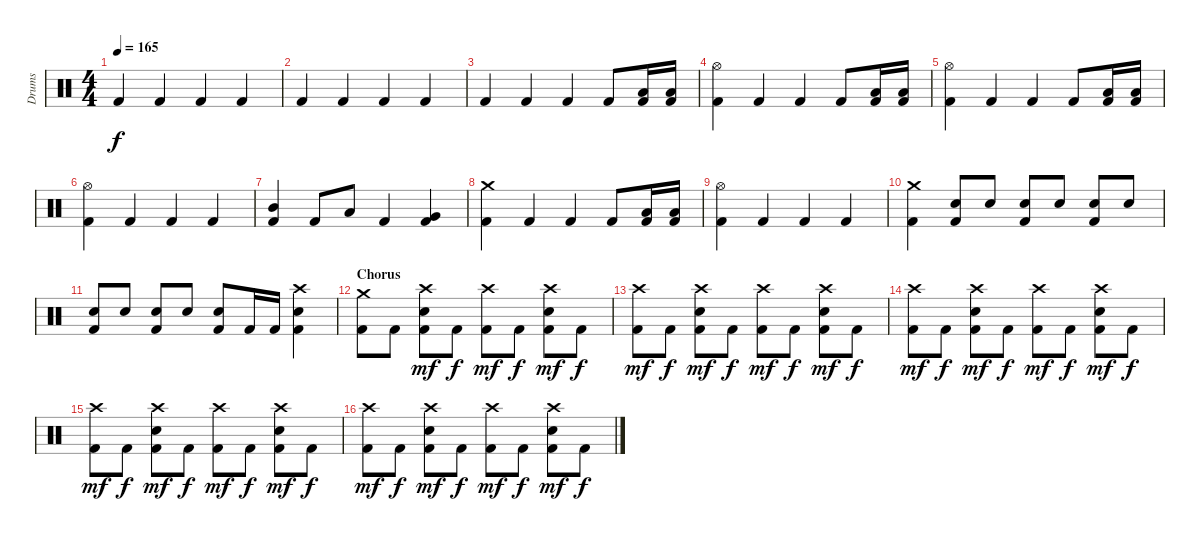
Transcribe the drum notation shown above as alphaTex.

\track ("Drums" "Drums") {instrument percussion}
\staff {score}
\articulation defaults
\ts (4 4)
\tempo 165
\clef neutral
\ks c "Kick (hit) 2".4{dy f} "Kick (hit) 2".4 "Kick (hit) 2".4 "Kick (hit) 2".4
|
"Kick (hit) 2".4 "Kick (hit) 2".4 "Kick (hit) 2".4 "Kick (hit) 2".4 |
"Kick (hit) 2".4 "Kick (hit) 2".4 "Kick (hit) 2".4 "Kick (hit) 2".8 ("Kick (hit) 2" "Low Tom (hit)").16 ("Kick (hit) 2" "Low Tom (hit)").16 |
("Kick (hit) 2" "Hi-Hat (open)").4 "Kick (hit) 2".4 "Kick (hit) 2".4 "Kick (hit) 2".8 ("Kick (hit) 2" "Low Tom (hit)").16 ("Kick (hit) 2" "Low Tom (hit)").16 |
("Kick (hit) 2" "Hi-Hat (open)").4 "Kick (hit) 2".4 "Kick (hit) 2".4 "Kick (hit) 2".8 ("Kick (hit) 2" "Low Tom (hit)").16 ("Kick (hit) 2" "Low Tom (hit)").16 |
("Kick (hit) 2" "Hi-Hat (open)").4 "Kick (hit) 2".4 "Kick (hit) 2".4 "Kick (hit) 2".4 |
("Kick (hit) 2" "Mid Tom (hit)").4 "Kick (hit) 2".8 "Low Tom (hit)".8 "Kick (hit) 2".4 ("Kick (hit) 2" "Very Low Tom (hit)").4 |
("Kick (hit) 2" "Crash medium (hit)").4 "Kick (hit) 2".4 "Kick (hit) 2".4 "Kick (hit) 2".8 ("Kick (hit) 2" "Low Tom (hit)").16 ("Kick (hit) 2" "Low Tom (hit)").16 |
("Kick (hit) 2" "Hi-Hat (open)").4 "Kick (hit) 2".4 "Kick (hit) 2".4 "Kick (hit) 2".4 |
("Kick (hit) 2" "Crash medium (hit)").4 ("Kick (hit) 2" "Electric Snare (hit)").8 "Electric Snare (hit)".8 ("Kick (hit) 2" "Electric Snare (hit)").8 "Electric Snare (hit)".8 ("Kick (hit) 2" "Electric Snare (hit)").8 "Electric Snare (hit)".8 |
("Kick (hit) 2" "Electric Snare (hit)").8 "Electric Snare (hit)".8 ("Kick (hit) 2" "Electric Snare (hit)").8 "Electric Snare (hit)".8 ("Kick (hit) 2" "Electric Snare (hit)").8 "Kick (hit) 2".16 "Kick (hit) 2".16 ("Kick (hit) 2" "Electric Snare (hit)" "Crash high (hit)").4 |
\section ("" "Chorus")
("Kick (hit) 2" "Crash medium (hit)").8 "Kick (hit) 2".8 ("Kick (hit) 2" "Electric Snare (hit)" "Crash high (hit)").8{dy mf} "Kick (hit) 2".8{dy f} ("Kick (hit) 2" "Crash high (hit)").8{dy mf} "Kick (hit) 2".8{dy f} ("Kick (hit) 2" "Electric Snare (hit)" "Crash high (hit)").8{dy mf} "Kick (hit) 2".8{dy f} |
("Kick (hit) 2" "Crash high (hit)").8{dy mf} "Kick (hit) 2".8{dy f} ("Kick (hit) 2" "Electric Snare (hit)" "Crash high (hit)").8{dy mf} "Kick (hit) 2".8{dy f} ("Kick (hit) 2" "Crash high (hit)").8{dy mf} "Kick (hit) 2".8{dy f} ("Kick (hit) 2" "Electric Snare (hit)" "Crash high (hit)").8{dy mf} "Kick (hit) 2".8{dy f} |
("Kick (hit) 2" "Crash high (hit)").8{dy mf} "Kick (hit) 2".8{dy f} ("Kick (hit) 2" "Electric Snare (hit)" "Crash high (hit)").8{dy mf} "Kick (hit) 2".8{dy f} ("Kick (hit) 2" "Crash high (hit)").8{dy mf} "Kick (hit) 2".8{dy f} ("Kick (hit) 2" "Electric Snare (hit)" "Crash high (hit)").8{dy mf} "Kick (hit) 2".8{dy f} |
("Kick (hit) 2" "Crash high (hit)").8{dy mf} "Kick (hit) 2".8{dy f} ("Kick (hit) 2" "Electric Snare (hit)" "Crash high (hit)").8{dy mf} "Kick (hit) 2".8{dy f} ("Kick (hit) 2" "Crash high (hit)").8{dy mf} "Kick (hit) 2".8{dy f} ("Kick (hit) 2" "Electric Snare (hit)" "Crash high (hit)").8{dy mf} "Kick (hit) 2".8{dy f} |
("Kick (hit) 2" "Crash high (hit)").8{dy mf} "Kick (hit) 2".8{dy f} ("Kick (hit) 2" "Electric Snare (hit)" "Crash high (hit)").8{dy mf} "Kick (hit) 2".8{dy f} ("Kick (hit) 2" "Crash high (hit)").8{dy mf} "Kick (hit) 2".8{dy f} ("Kick (hit) 2" "Electric Snare (hit)" "Crash high (hit)").8{dy mf} "Kick (hit) 2".8{dy f}
